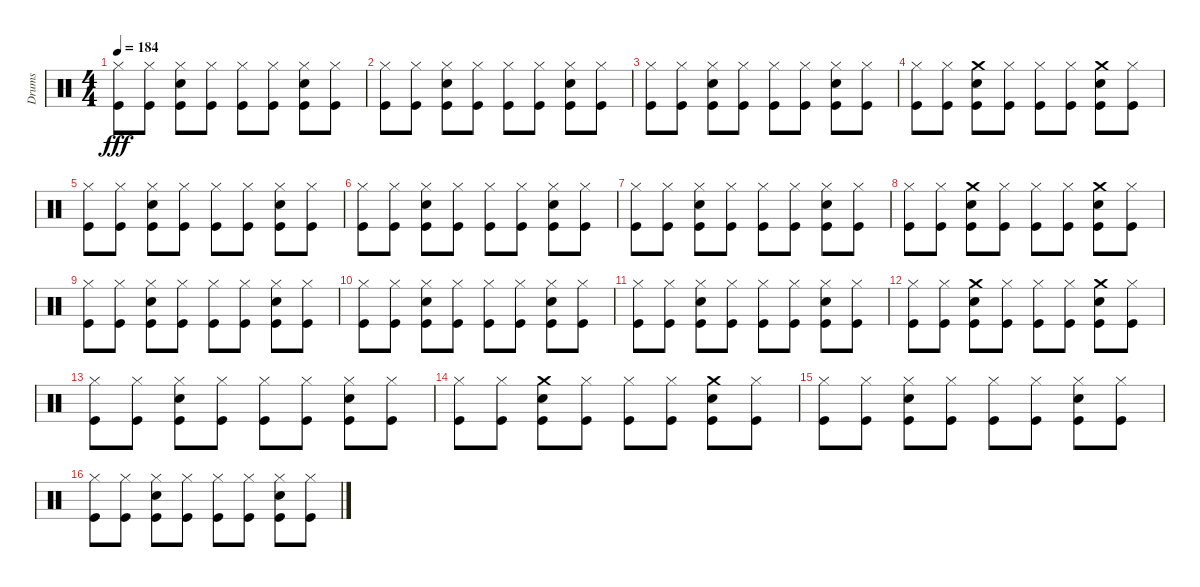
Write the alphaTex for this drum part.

\track ("Drums" "Drums") {instrument percussion}
\staff {score}
\articulation defaults
\ts (4 4)
\tempo 184
\clef neutral
\ks c
("Kick (hit)" "Hi-Hat (closed)").8{dy fff} ("Kick (hit)" "Hi-Hat (closed)").8 ("Snare (hit) 2" "Kick (hit)" "Hi-Hat (closed)").8 ("Kick (hit)" "Hi-Hat (closed)").8 ("Kick (hit)" "Hi-Hat (closed)").8 ("Kick (hit)" "Hi-Hat (closed)").8 ("Snare (hit) 2" "Kick (hit)" "Hi-Hat (closed)").8 ("Kick (hit)" "Hi-Hat (closed)").8 |
("Kick (hit)" "Hi-Hat (closed)").8 ("Kick (hit)" "Hi-Hat (closed)").8 ("Snare (hit) 2" "Kick (hit)" "Hi-Hat (closed)").8 ("Kick (hit)" "Hi-Hat (closed)").8 ("Kick (hit)" "Hi-Hat (closed)").8 ("Kick (hit)" "Hi-Hat (closed)").8 ("Snare (hit) 2" "Kick (hit)" "Hi-Hat (closed)").8 ("Kick (hit)" "Hi-Hat (closed)").8 |
("Kick (hit)" "Hi-Hat (closed)").8 ("Kick (hit)" "Hi-Hat (closed)").8 ("Snare (hit) 2" "Kick (hit)" "Hi-Hat (closed)").8 ("Kick (hit)" "Hi-Hat (closed)").8 ("Kick (hit)" "Hi-Hat (closed)").8 ("Kick (hit)" "Hi-Hat (closed)").8 ("Snare (hit) 2" "Kick (hit)" "Hi-Hat (closed)").8 ("Kick (hit)" "Hi-Hat (closed)").8 |
("Kick (hit)" "Hi-Hat (closed)").8 ("Kick (hit)" "Hi-Hat (closed)").8 ("Crash medium (hit)" "Snare (hit) 2" "Kick (hit)").8 ("Kick (hit)" "Hi-Hat (closed)").8 ("Kick (hit)" "Hi-Hat (closed)").8 ("Kick (hit)" "Hi-Hat (closed)").8 ("Crash medium (hit)" "Snare (hit) 2" "Kick (hit)").8 ("Kick (hit)" "Hi-Hat (closed)").8 |
("Kick (hit)" "Hi-Hat (closed)").8 ("Kick (hit)" "Hi-Hat (closed)").8 ("Snare (hit) 2" "Kick (hit)" "Hi-Hat (closed)").8 ("Kick (hit)" "Hi-Hat (closed)").8 ("Kick (hit)" "Hi-Hat (closed)").8 ("Kick (hit)" "Hi-Hat (closed)").8 ("Snare (hit) 2" "Kick (hit)" "Hi-Hat (closed)").8 ("Kick (hit)" "Hi-Hat (closed)").8 |
("Kick (hit)" "Hi-Hat (closed)").8 ("Kick (hit)" "Hi-Hat (closed)").8 ("Snare (hit) 2" "Kick (hit)" "Hi-Hat (closed)").8 ("Kick (hit)" "Hi-Hat (closed)").8 ("Kick (hit)" "Hi-Hat (closed)").8 ("Kick (hit)" "Hi-Hat (closed)").8 ("Snare (hit) 2" "Kick (hit)" "Hi-Hat (closed)").8 ("Kick (hit)" "Hi-Hat (closed)").8 |
("Kick (hit)" "Hi-Hat (closed)").8 ("Kick (hit)" "Hi-Hat (closed)").8 ("Snare (hit) 2" "Kick (hit)" "Hi-Hat (closed)").8 ("Kick (hit)" "Hi-Hat (closed)").8 ("Kick (hit)" "Hi-Hat (closed)").8 ("Kick (hit)" "Hi-Hat (closed)").8 ("Snare (hit) 2" "Kick (hit)" "Hi-Hat (closed)").8 ("Kick (hit)" "Hi-Hat (closed)").8 |
("Kick (hit)" "Hi-Hat (closed)").8 ("Kick (hit)" "Hi-Hat (closed)").8 ("Crash medium (hit)" "Snare (hit) 2" "Kick (hit)").8 ("Kick (hit)" "Hi-Hat (closed)").8 ("Kick (hit)" "Hi-Hat (closed)").8 ("Kick (hit)" "Hi-Hat (closed)").8 ("Crash medium (hit)" "Snare (hit) 2" "Kick (hit)").8 ("Kick (hit)" "Hi-Hat (closed)").8 |
("Kick (hit)" "Hi-Hat (closed)").8 ("Kick (hit)" "Hi-Hat (closed)").8 ("Snare (hit) 2" "Kick (hit)" "Hi-Hat (closed)").8 ("Kick (hit)" "Hi-Hat (closed)").8 ("Kick (hit)" "Hi-Hat (closed)").8 ("Kick (hit)" "Hi-Hat (closed)").8 ("Snare (hit) 2" "Kick (hit)" "Hi-Hat (closed)").8 ("Kick (hit)" "Hi-Hat (closed)").8 |
("Kick (hit)" "Hi-Hat (closed)").8 ("Kick (hit)" "Hi-Hat (closed)").8 ("Snare (hit) 2" "Kick (hit)" "Hi-Hat (closed)").8 ("Kick (hit)" "Hi-Hat (closed)").8 ("Kick (hit)" "Hi-Hat (closed)").8 ("Kick (hit)" "Hi-Hat (closed)").8 ("Snare (hit) 2" "Kick (hit)" "Hi-Hat (closed)").8 ("Kick (hit)" "Hi-Hat (closed)").8 |
("Kick (hit)" "Hi-Hat (closed)").8 ("Kick (hit)" "Hi-Hat (closed)").8 ("Snare (hit) 2" "Kick (hit)" "Hi-Hat (closed)").8 ("Kick (hit)" "Hi-Hat (closed)").8 ("Kick (hit)" "Hi-Hat (closed)").8 ("Kick (hit)" "Hi-Hat (closed)").8 ("Snare (hit) 2" "Kick (hit)" "Hi-Hat (closed)").8 ("Kick (hit)" "Hi-Hat (closed)").8 |
("Kick (hit)" "Hi-Hat (closed)").8 ("Kick (hit)" "Hi-Hat (closed)").8 ("Crash medium (hit)" "Snare (hit) 2" "Kick (hit)").8 ("Kick (hit)" "Hi-Hat (closed)").8 ("Kick (hit)" "Hi-Hat (closed)").8 ("Kick (hit)" "Hi-Hat (closed)").8 ("Crash medium (hit)" "Snare (hit) 2" "Kick (hit)").8 ("Kick (hit)" "Hi-Hat (closed)").8 |
("Kick (hit)" "Hi-Hat (closed)").8 ("Kick (hit)" "Hi-Hat (closed)").8 ("Snare (hit) 2" "Kick (hit)" "Hi-Hat (closed)").8 ("Kick (hit)" "Hi-Hat (closed)").8 ("Kick (hit)" "Hi-Hat (closed)").8 ("Kick (hit)" "Hi-Hat (closed)").8 ("Snare (hit) 2" "Kick (hit)" "Hi-Hat (closed)").8 ("Kick (hit)" "Hi-Hat (closed)").8 |
("Kick (hit)" "Hi-Hat (closed)").8 ("Kick (hit)" "Hi-Hat (closed)").8 ("Crash medium (hit)" "Snare (hit) 2" "Kick (hit)").8 ("Kick (hit)" "Hi-Hat (closed)").8 ("Kick (hit)" "Hi-Hat (closed)").8 ("Kick (hit)" "Hi-Hat (closed)").8 ("Crash medium (hit)" "Snare (hit) 2" "Kick (hit)").8 ("Kick (hit)" "Hi-Hat (closed)").8 |
("Kick (hit)" "Hi-Hat (closed)").8 ("Kick (hit)" "Hi-Hat (closed)").8 ("Snare (hit) 2" "Kick (hit)" "Hi-Hat (closed)").8 ("Kick (hit)" "Hi-Hat (closed)").8 ("Kick (hit)" "Hi-Hat (closed)").8 ("Kick (hit)" "Hi-Hat (closed)").8 ("Snare (hit) 2" "Kick (hit)" "Hi-Hat (closed)").8 ("Kick (hit)" "Hi-Hat (closed)").8 |
("Kick (hit)" "Hi-Hat (closed)").8 ("Kick (hit)" "Hi-Hat (closed)").8 ("Snare (hit) 2" "Kick (hit)" "Hi-Hat (closed)").8 ("Kick (hit)" "Hi-Hat (closed)").8 ("Kick (hit)" "Hi-Hat (closed)").8 ("Kick (hit)" "Hi-Hat (closed)").8 ("Snare (hit) 2" "Kick (hit)" "Hi-Hat (closed)").8 ("Kick (hit)" "Hi-Hat (closed)").8
